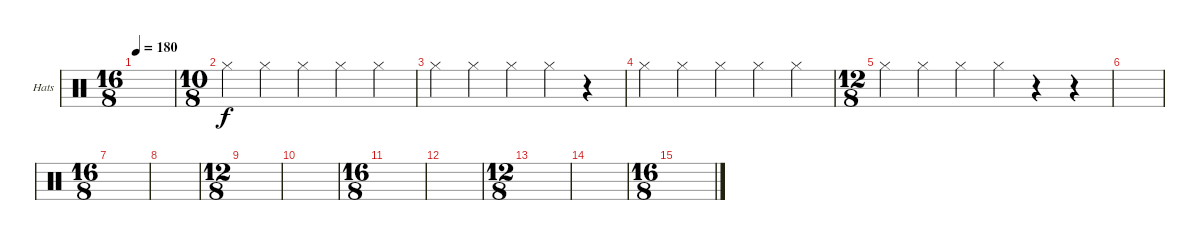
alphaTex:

\defaultSystemsLayout 4
\bracketExtendMode groupsimilarinstruments
\firstSystemTrackNameOrientation horizontal
\otherSystemsTrackNameOrientation horizontal
\track ("Hi Hats" "Hats") {instrument percussion}
\staff {score}
\articulation defaults
\ts (16 8)
\tempo 180
\clef neutral
\ks c
|
\ts (10 8)
"Hi-Hat (closed)".4 "Hi-Hat (closed)".4 "Hi-Hat (closed)".4 "Hi-Hat (closed)".4 "Hi-Hat (closed)".4 |
"Hi-Hat (closed)".4 "Hi-Hat (closed)".4 "Hi-Hat (closed)".4 "Hi-Hat (closed)".4 r.4 |
"Hi-Hat (closed)".4 "Hi-Hat (closed)".4 "Hi-Hat (closed)".4 "Hi-Hat (closed)".4 "Hi-Hat (closed)".4 |
\ts (12 8)
"Hi-Hat (closed)".4 "Hi-Hat (closed)".4 "Hi-Hat (closed)".4 "Hi-Hat (closed)".4 r.4 r.4 |
|
\ts (16 8)
|
|
\ts (12 8)
|
|
\ts (16 8)
|
|
\ts (12 8)
|
|
\ts (16 8)
